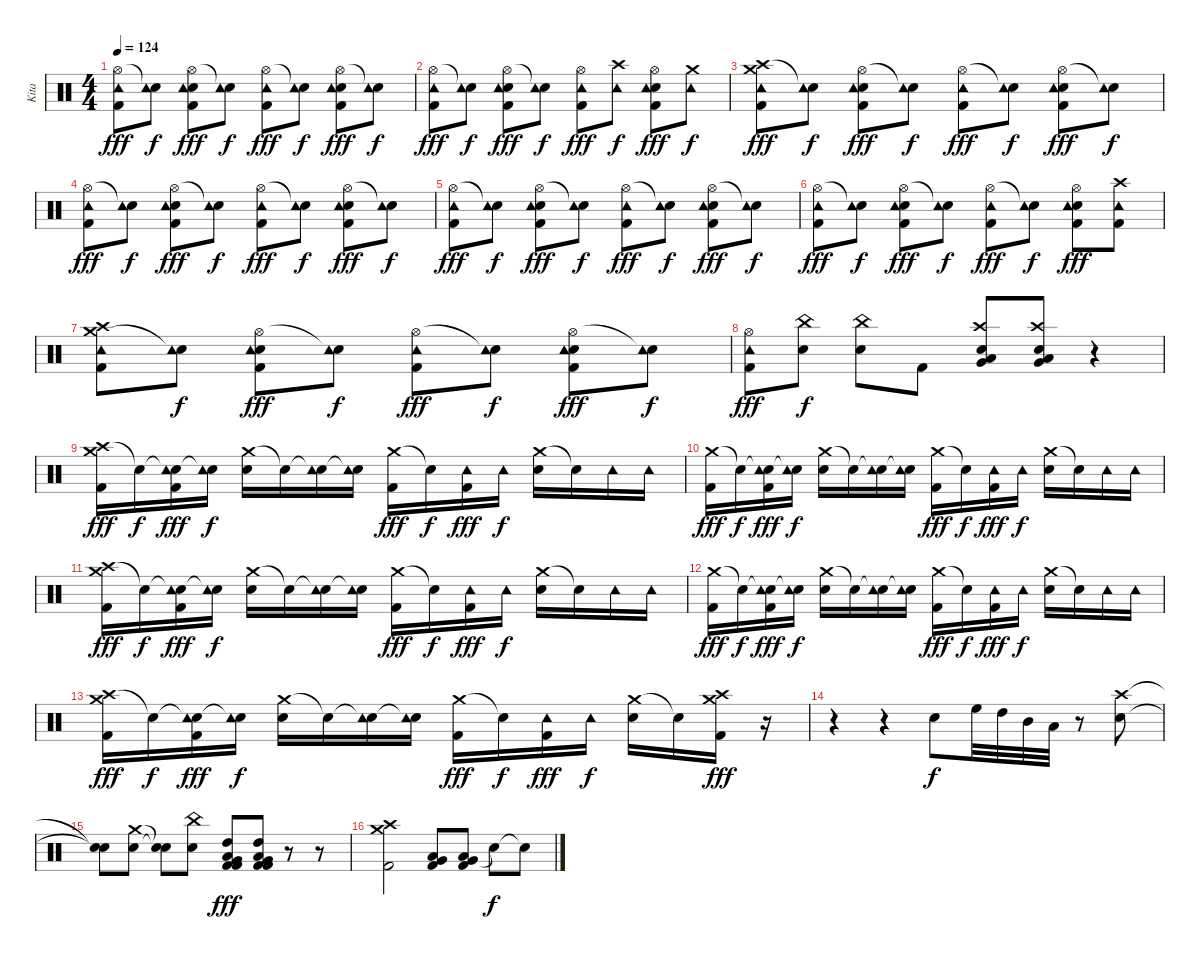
\track ("Kita" "Kita") {instrument percussion}
\staff {score}
\articulation defaults
\ts (4 4)
\tempo 124
\clef neutral
\ks c
("Hi-Hat (open)" "Kick (hit) 2" "Tambourine (hit)").8{dy fff} ("Snare (hit)"{t} "Tambourine (hit)").8{dy f} ("Hi-Hat (open)" "Kick (hit) 2" "Electric Snare (hit)" "Tambourine (hit)").8{dy fff} ("Snare (hit)"{t} "Tambourine (hit)").8{dy f} ("Hi-Hat (open)" "Kick (hit) 2" "Tambourine (hit)").8{dy fff} ("Snare (hit)"{t} "Tambourine (hit)").8{dy f} ("Hi-Hat (open)" "Kick (hit) 2" "Electric Snare (hit)" "Tambourine (hit)").8{dy fff} ("Snare (hit)"{t} "Tambourine (hit)").8{dy f} |
("Hi-Hat (open)" "Kick (hit) 2" "Tambourine (hit)").8{dy fff} ("Snare (hit)"{t} "Tambourine (hit)").8{dy f} ("Hi-Hat (open)" "Kick (hit) 2" "Electric Snare (hit)" "Tambourine (hit)").8{dy fff} ("Snare (hit)"{t} "Tambourine (hit)").8{dy f} ("Hi-Hat (open)" "Kick (hit) 2" "Tambourine (hit)").8{dy fff} ("Crash high (hit)" "Tambourine (hit)").8{dy f} ("Hi-Hat (open)" "Kick (hit) 2" "Electric Snare (hit)" "Tambourine (hit)").8{dy fff} ("Crash medium (hit)" "Tambourine (hit)").8{dy f} |
("Crash high (hit)" "Kick (hit) 2" "Crash medium (hit)" "Tambourine (hit)").8{dy fff} ("Snare (hit)"{t} "Tambourine (hit)").8{dy f} ("Hi-Hat (open)" "Kick (hit) 2" "Electric Snare (hit)" "Tambourine (hit)").8{dy fff} ("Snare (hit)"{t} "Tambourine (hit)").8{dy f} ("Hi-Hat (open)" "Kick (hit) 2" "Tambourine (hit)").8{dy fff} ("Snare (hit)"{t} "Tambourine (hit)").8{dy f} ("Hi-Hat (open)" "Kick (hit) 2" "Electric Snare (hit)" "Tambourine (hit)").8{dy fff} ("Snare (hit)"{t} "Tambourine (hit)").8{dy f} |
("Hi-Hat (open)" "Kick (hit) 2" "Tambourine (hit)").8{dy fff} ("Snare (hit)"{t} "Tambourine (hit)").8{dy f} ("Hi-Hat (open)" "Kick (hit) 2" "Electric Snare (hit)" "Tambourine (hit)").8{dy fff} ("Snare (hit)"{t} "Tambourine (hit)").8{dy f} ("Hi-Hat (open)" "Kick (hit) 2" "Tambourine (hit)").8{dy fff} ("Snare (hit)"{t} "Tambourine (hit)").8{dy f} ("Hi-Hat (open)" "Kick (hit) 2" "Electric Snare (hit)" "Tambourine (hit)").8{dy fff} ("Snare (hit)"{t} "Tambourine (hit)").8{dy f} |
("Hi-Hat (open)" "Kick (hit) 2" "Tambourine (hit)").8{dy fff} ("Snare (hit)"{t} "Tambourine (hit)").8{dy f} ("Hi-Hat (open)" "Kick (hit) 2" "Electric Snare (hit)" "Tambourine (hit)").8{dy fff} ("Snare (hit)"{t} "Tambourine (hit)").8{dy f} ("Hi-Hat (open)" "Kick (hit) 2" "Tambourine (hit)").8{dy fff} ("Snare (hit)"{t} "Tambourine (hit)").8{dy f} ("Hi-Hat (open)" "Kick (hit) 2" "Electric Snare (hit)" "Tambourine (hit)").8{dy fff} ("Snare (hit)"{t} "Tambourine (hit)").8{dy f} |
("Hi-Hat (open)" "Kick (hit) 2" "Tambourine (hit)").8{dy fff} ("Snare (hit)"{t} "Tambourine (hit)").8{dy f} ("Hi-Hat (open)" "Kick (hit) 2" "Electric Snare (hit)" "Tambourine (hit)").8{dy fff} ("Snare (hit)"{t} "Tambourine (hit)").8{dy f} ("Hi-Hat (open)" "Kick (hit) 2" "Tambourine (hit)").8{dy fff} ("Snare (hit)"{t} "Tambourine (hit)").8{dy f} ("Hi-Hat (open)" "Kick (hit) 2" "Electric Snare (hit)" "Tambourine (hit)").8{dy fff} ("Crash high (hit)" "Kick (hit) 2" "Tambourine (hit)").8 |
("Crash medium (hit)" "Kick (hit) 2" "Crash high (hit)" "Tambourine (hit)").8 ("Snare (hit)"{t} "Tambourine (hit)").8{dy f} ("Hi-Hat (open)" "Kick (hit) 2" "Electric Snare (hit)" "Tambourine (hit)").8{dy fff} ("Snare (hit)"{t} "Tambourine (hit)").8{dy f} ("Hi-Hat (open)" "Kick (hit) 2" "Tambourine (hit)").8{dy fff} ("Snare (hit)"{t} "Tambourine (hit)").8{dy f} ("Hi-Hat (open)" "Kick (hit) 2" "Electric Snare (hit)" "Tambourine (hit)").8{dy fff} ("Snare (hit)"{t} "Tambourine (hit)").8{dy f} |
("Hi-Hat (open)" "Kick (hit) 2" "Tambourine (hit)").8{dy fff} ("Electric Snare (hit)" "China (hit)").8{dy f} ("Electric Snare (hit)" "China (hit)").8 "Kick (hit) 2".8 ("Electric Snare (hit)" "Low Tom (hit)" "Very Low Tom (hit)" "Crash high (hit)").8 ("Electric Snare (hit)" "Low Tom (hit)" "Very Low Tom (hit)" "Crash high (hit)").8 r.4 |
("Crash high (hit)" "Kick (hit) 2" "Crash medium (hit)").16{dy fff} "Snare (hit)"{t}.16{dy f} ("Snare (hit)"{t} "Tambourine (hit)" "Kick (hit) 2").16{dy fff} ("Snare (hit)"{t} "Tambourine (hit)").16{dy f} ("Crash medium (hit)" "Electric Snare (hit)").16 "Snare (hit)"{t}.16 ("Snare (hit)"{t} "Tambourine (hit)").16 ("Snare (hit)"{t} "Tambourine (hit)").16 ("Crash medium (hit)" "Kick (hit) 2").16{dy fff} "Snare (hit)"{t}.16{dy f} ("Tambourine (hit)" "Kick (hit) 2").16{dy fff} "Tambourine (hit)".16{dy f} ("Crash medium (hit)" "Electric Snare (hit)").16 "Snare (hit)"{t}.16 "Tambourine (hit)".16 "Tambourine (hit)".16 |
("Crash medium (hit)" "Kick (hit) 2").16{dy fff} "Snare (hit)"{t}.16{dy f} ("Snare (hit)"{t} "Tambourine (hit)" "Kick (hit) 2").16{dy fff} ("Snare (hit)"{t} "Tambourine (hit)").16{dy f} ("Crash medium (hit)" "Electric Snare (hit)").16 "Snare (hit)"{t}.16 ("Snare (hit)"{t} "Tambourine (hit)").16 ("Snare (hit)"{t} "Tambourine (hit)").16 ("Crash medium (hit)" "Kick (hit) 2").16{dy fff} "Snare (hit)"{t}.16{dy f} ("Tambourine (hit)" "Kick (hit) 2").16{dy fff} "Tambourine (hit)".16{dy f} ("Crash medium (hit)" "Electric Snare (hit)").16 "Snare (hit)"{t}.16 "Tambourine (hit)".16 "Tambourine (hit)".16 |
("Crash high (hit)" "Kick (hit) 2" "Crash medium (hit)").16{dy fff} "Snare (hit)"{t}.16{dy f} ("Snare (hit)"{t} "Tambourine (hit)" "Kick (hit) 2").16{dy fff} ("Snare (hit)"{t} "Tambourine (hit)").16{dy f} ("Crash medium (hit)" "Electric Snare (hit)").16 "Snare (hit)"{t}.16 ("Snare (hit)"{t} "Tambourine (hit)").16 ("Snare (hit)"{t} "Tambourine (hit)").16 ("Crash medium (hit)" "Kick (hit) 2").16{dy fff} "Snare (hit)"{t}.16{dy f} ("Tambourine (hit)" "Kick (hit) 2").16{dy fff} "Tambourine (hit)".16{dy f} ("Crash medium (hit)" "Electric Snare (hit)").16 "Snare (hit)"{t}.16 "Tambourine (hit)".16 "Tambourine (hit)".16 |
("Crash medium (hit)" "Kick (hit) 2").16{dy fff} "Snare (hit)"{t}.16{dy f} ("Snare (hit)"{t} "Tambourine (hit)" "Kick (hit) 2").16{dy fff} ("Snare (hit)"{t} "Tambourine (hit)").16{dy f} ("Crash medium (hit)" "Electric Snare (hit)").16 "Snare (hit)"{t}.16 ("Snare (hit)"{t} "Tambourine (hit)").16 ("Snare (hit)"{t} "Tambourine (hit)").16 ("Crash medium (hit)" "Kick (hit) 2").16{dy fff} "Snare (hit)"{t}.16{dy f} ("Tambourine (hit)" "Kick (hit) 2").16{dy fff} "Tambourine (hit)".16{dy f} ("Crash medium (hit)" "Electric Snare (hit)").16 "Snare (hit)"{t}.16 "Tambourine (hit)".16 "Tambourine (hit)".16 |
("Crash high (hit)" "Kick (hit) 2" "Crash medium (hit)").16{dy fff} "Snare (hit)"{t}.16{dy f} ("Snare (hit)"{t} "Tambourine (hit)" "Kick (hit) 2").16{dy fff} ("Snare (hit)"{t} "Tambourine (hit)").16{dy f} ("Crash medium (hit)" "Electric Snare (hit)").16 "Snare (hit)"{t}.16 ("Snare (hit)"{t} "Tambourine (hit)").16 ("Snare (hit)"{t} "Tambourine (hit)").16 ("Crash medium (hit)" "Kick (hit) 2").16{dy fff} "Snare (hit)"{t}.16{dy f} ("Tambourine (hit)" "Kick (hit) 2").16{dy fff} "Tambourine (hit)".16{dy f} ("Crash medium (hit)" "Electric Snare (hit)").16 "Snare (hit)"{t}.16 ("Crash medium (hit)" "Kick (hit) 2" "Crash high (hit)").16{dy fff} r.16 |
r.4 r.4 "Electric Snare (hit)".8{dy f} "High Floor Tom (hit)".32 "High Tom (hit)".32 "Mid Tom (hit)".32 "Low Tom (hit)".32 r.8 ("Electric Snare (hit)" "Crash high (hit)").8 |
("Snare (hit)"{t} "Snare (hit)"{t}).8 ("Electric Snare (hit)" "Crash medium (hit)").8 ("Snare (hit)"{t} "Snare (hit)"{t}).8 ("Electric Snare (hit)" "China (hit)").8 ("Low Tom (hit)" "Kick (hit) 2" "Kick (hit) 2" "Very Low Tom (hit)" "High Tom (hit)").8{dy fff} ("Low Tom (hit)" "Kick (hit) 2" "Kick (hit) 2" "Very Low Tom (hit)" "High Tom (hit)").8 r.8 r.8 |
("Crash high (hit)" "Kick (hit) 2" "Crash medium (hit)").2 ("Very Low Tom (hit)" "Low Tom (hit)" "Kick (hit) 2").8 ("Very Low Tom (hit)" "Low Tom (hit)" "Kick (hit) 2").8 "Snare (hit)"{t}.8{dy f} "Snare (hit)"{t}.8
